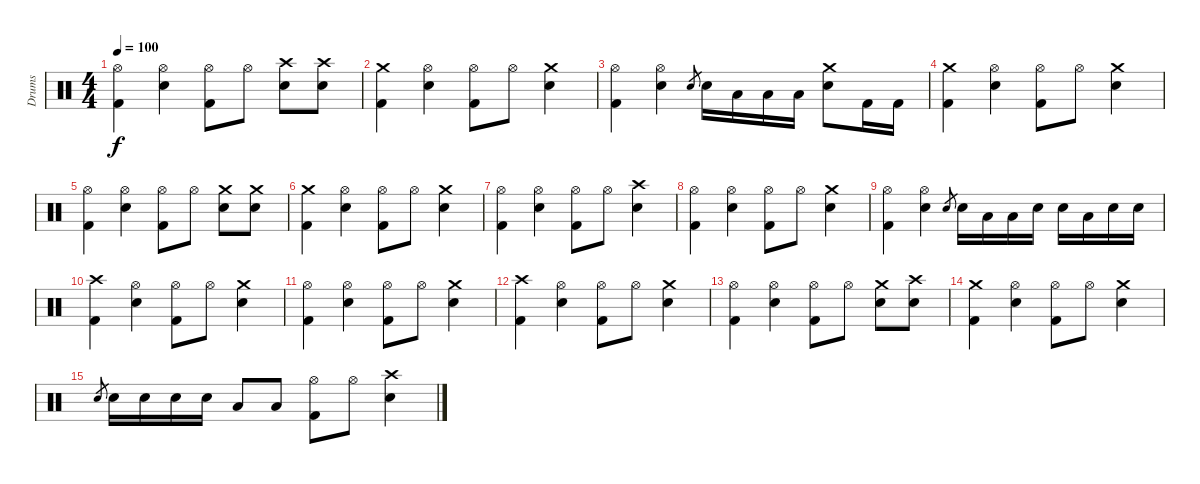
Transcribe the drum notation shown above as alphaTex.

\track ("Drums" "Drums") {instrument percussion}
\staff {score}
\articulation defaults
\ts (4 4)
\tempo 100
\clef neutral
\ks c
("Hi-Hat (open)" "Kick (hit) 2").4{dy f} ("Hi-Hat (open)" "Snare (hit) 2").4 ("Hi-Hat (open)" "Kick (hit) 2").8 "Hi-Hat (open)".8 ("Crash high (hit)" "Snare (hit) 2").8 ("Crash high (hit)" "Snare (hit) 2").8 |
("Crash medium (hit)" "Kick (hit) 2").4 ("Hi-Hat (open)" "Snare (hit) 2").4 ("Hi-Hat (open)" "Kick (hit) 2").8 "Hi-Hat (open)".8 ("Crash medium (hit)" "Snare (hit) 2").4 |
("Hi-Hat (open)" "Kick (hit) 2").4 ("Hi-Hat (open)" "Snare (hit) 2").4 "Electric Snare (hit)".8{gr} "Electric Snare (hit)".16 "Low Floor Tom (hit)".16 "Low Floor Tom (hit)".16 "Low Floor Tom (hit)".16 ("Crash medium (hit)" "Electric Snare (hit)").8 "Kick (hit) 2".16 "Kick (hit) 2".16 |
("Crash medium (hit)" "Kick (hit) 2").4 ("Hi-Hat (open)" "Snare (hit) 2").4 ("Hi-Hat (open)" "Kick (hit) 2").8 "Hi-Hat (open)".8 ("Crash medium (hit)" "Snare (hit) 2").4 |
("Hi-Hat (open)" "Kick (hit) 2").4 ("Hi-Hat (open)" "Snare (hit) 2").4 ("Hi-Hat (open)" "Kick (hit) 2").8 "Hi-Hat (open)".8 ("Crash medium (hit)" "Snare (hit) 2").8 ("Crash medium (hit)" "Snare (hit) 2").8 |
("Crash medium (hit)" "Kick (hit) 2").4 ("Hi-Hat (open)" "Snare (hit) 2").4 ("Hi-Hat (open)" "Kick (hit) 2").8 "Hi-Hat (open)".8 ("Crash medium (hit)" "Snare (hit) 2").4 |
("Hi-Hat (open)" "Kick (hit) 2").4 ("Hi-Hat (open)" "Snare (hit) 2").4 ("Hi-Hat (open)" "Kick (hit) 2").8 "Hi-Hat (open)".8 ("Crash high (hit)" "Snare (hit) 2").4 |
("Hi-Hat (open)" "Kick (hit) 2").4 ("Hi-Hat (open)" "Snare (hit) 2").4 ("Hi-Hat (open)" "Kick (hit) 2").8 "Hi-Hat (open)".8 ("Crash medium (hit)" "Snare (hit) 2").4 |
("Hi-Hat (open)" "Kick (hit) 2").4 ("Hi-Hat (open)" "Snare (hit) 2").4 "Electric Snare (hit)".8{gr} "Electric Snare (hit)".16 "Low Floor Tom (hit)".16 "Low Floor Tom (hit)".16 "Electric Snare (hit)".16 "Electric Snare (hit)".16 "Low Floor Tom (hit)".16 "Electric Snare (hit)".16 "Electric Snare (hit)".16 |
("Crash high (hit)" "Kick (hit) 2").4 ("Hi-Hat (open)" "Snare (hit) 2").4 ("Hi-Hat (open)" "Kick (hit) 2").8 "Hi-Hat (open)".8 ("Crash medium (hit)" "Snare (hit) 2").4 |
("Hi-Hat (open)" "Kick (hit) 2").4 ("Hi-Hat (open)" "Snare (hit) 2").4 ("Hi-Hat (open)" "Kick (hit) 2").8 "Hi-Hat (open)".8 ("Crash medium (hit)" "Snare (hit) 2").4 |
("Crash high (hit)" "Kick (hit) 2").4 ("Hi-Hat (open)" "Snare (hit) 2").4 ("Hi-Hat (open)" "Kick (hit) 2").8 "Hi-Hat (open)".8 ("Crash medium (hit)" "Snare (hit) 2").4 |
("Hi-Hat (open)" "Kick (hit) 2").4 ("Hi-Hat (open)" "Snare (hit) 2").4 ("Hi-Hat (open)" "Kick (hit) 2").8 "Hi-Hat (open)".8 ("Crash medium (hit)" "Snare (hit) 2").8 ("Crash high (hit)" "Snare (hit) 2").8 |
("Crash medium (hit)" "Kick (hit) 2").4 ("Hi-Hat (open)" "Snare (hit) 2").4 ("Hi-Hat (open)" "Kick (hit) 2").8 "Hi-Hat (open)".8 ("Crash medium (hit)" "Snare (hit) 2").4 |
"Electric Snare (hit)".8{gr} "Electric Snare (hit)".16 "Electric Snare (hit)".16 "Electric Snare (hit)".16 "Electric Snare (hit)".16 "Low Tom (hit)".8 "Low Tom (hit)".8 ("Hi-Hat (open)" "Kick (hit) 2").8 "Hi-Hat (open)".8 ("Crash high (hit)" "Snare (hit) 2").4
